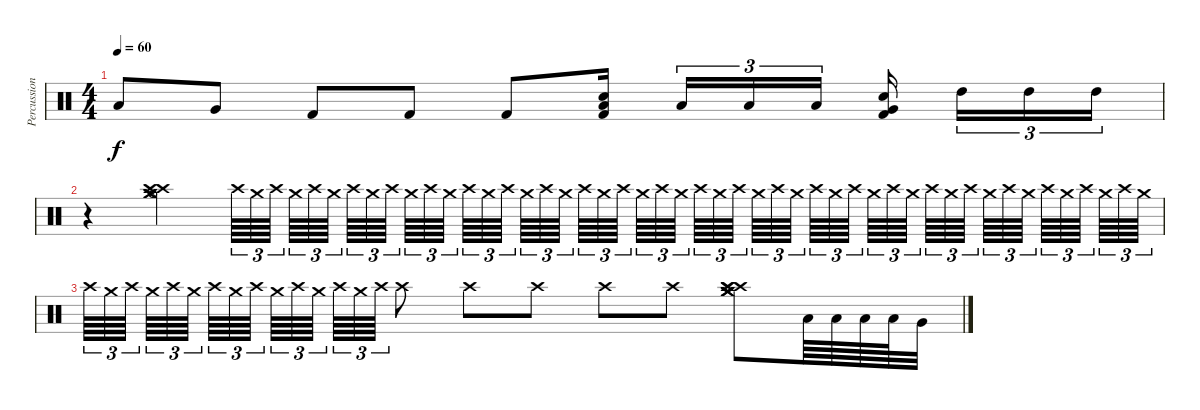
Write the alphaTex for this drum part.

\track ("Percussion" "Percussion") {instrument percussion}
\staff {score}
\articulation defaults
\ts (4 4)
\tempo 60
\clef neutral
\ks c "Low Floor Tom (hit)".8{dy f} "Very Low Tom (hit)".8 "Kick (hit) 2".8 "Kick (hit) 2".8 "Kick (hit) 2".8
("Low Floor Tom (hit)" "Snare (hit) 2" "Kick (hit) 2").16 "Low Tom (hit)".16{tu (3 2)} "Low Tom (hit)".16{tu (3 2)} "Low Tom (hit)".16{tu (3 2)} ("Very Low Tom (hit)" "Snare (hit) 2" "Kick (hit) 2").16 "High Tom (hit)".16{tu (3 2)} "High Tom (hit)".16{tu (3 2)} "High Tom (hit)".16{tu (3 2)} |
r.4 ("Crash medium (hit)" "Crash high (hit)" "Hi-Hat (open)" "Hi-Hat (open)" "Crash high (hit)" "Crash medium (hit)").4 "Crash high (hit)".64{tu (3 2)} "Crash medium (hit)".64{tu (3 2)} "Crash high (hit)".64{tu (3 2)} "Crash medium (hit)".64{tu (3 2)} "Crash high (hit)".64{tu (3 2)} "Crash medium (hit)".64{tu (3 2)} "Crash high (hit)".64{tu (3 2)} "Crash medium (hit)".64{tu (3 2)} "Crash high (hit)".64{tu (3 2)} "Crash medium (hit)".64{tu (3 2)} "Crash high (hit)".64{tu (3 2)} "Crash medium (hit)".64{tu (3 2)} "Crash high (hit)".64{tu (3 2)} "Crash medium (hit)".64{tu (3 2)} "Crash high (hit)".64{tu (3 2)} "Crash medium (hit)".64{tu (3 2)} "Crash high (hit)".64{tu (3 2)} "Crash medium (hit)".64{tu (3 2)} "Crash high (hit)".64{tu (3 2)} "Crash medium (hit)".64{tu (3 2)} "Crash high (hit)".64{tu (3 2)} "Crash medium (hit)".64{tu (3 2)} "Crash high (hit)".64{tu (3 2)} "Crash medium (hit)".64{tu (3 2)} "Crash high (hit)".64{tu (3 2)} "Crash medium (hit)".64{tu (3 2)} "Crash high (hit)".64{tu (3 2)} "Crash medium (hit)".64{tu (3 2)} "Crash high (hit)".64{tu (3 2)} "Crash medium (hit)".64{tu (3 2)} "Crash high (hit)".64{tu (3 2)} "Crash medium (hit)".64{tu (3 2)} "Crash high (hit)".64{tu (3 2)} "Crash medium (hit)".64{tu (3 2)} "Crash high (hit)".64{tu (3 2)} "Crash medium (hit)".64{tu (3 2)} "Crash high (hit)".64{tu (3 2)} "Crash medium (hit)".64{tu (3 2)} "Crash high (hit)".64{tu (3 2)} "Crash medium (hit)".64{tu (3 2)} "Crash high (hit)".64{tu (3 2)} "Crash medium (hit)".64{tu (3 2)} "Crash high (hit)".64{tu (3 2)} "Crash medium (hit)".64{tu (3 2)} "Crash high (hit)".64{tu (3 2)} "Crash medium (hit)".64{tu (3 2)} "Crash high (hit)".64{tu (3 2)} "Crash medium (hit)".64{tu (3 2)} |
"Crash high (hit)".64{tu (3 2)} "Crash medium (hit)".64{tu (3 2)} "Crash high (hit)".64{tu (3 2)} "Crash medium (hit)".64{tu (3 2)} "Crash high (hit)".64{tu (3 2)} "Crash medium (hit)".64{tu (3 2)} "Crash high (hit)".64{tu (3 2)} "Crash medium (hit)".64{tu (3 2)} "Crash high (hit)".64{tu (3 2)} "Crash medium (hit)".64{tu (3 2)} "Crash high (hit)".64{tu (3 2)} "Crash medium (hit)".64{tu (3 2)} "Crash high (hit)".64{tu (3 2)} "Crash medium (hit)".64{tu (3 2)} "Crash high (hit)".64{tu (3 2)} "Crash high (hit)".8 "Crash high (hit)".8 "Crash high (hit)".8 "Crash high (hit)".8 "Crash high (hit)".8 ("Crash high (hit)" "Crash high (hit)" "Crash high (hit)" "Crash medium (hit)" "Crash medium (hit)" "Crash medium (hit)").8 "Low Floor Tom (hit)".64 "Low Floor Tom (hit)".64 "Low Floor Tom (hit)".64 "Low Floor Tom (hit)".64 "Very Low Tom (hit)".32
